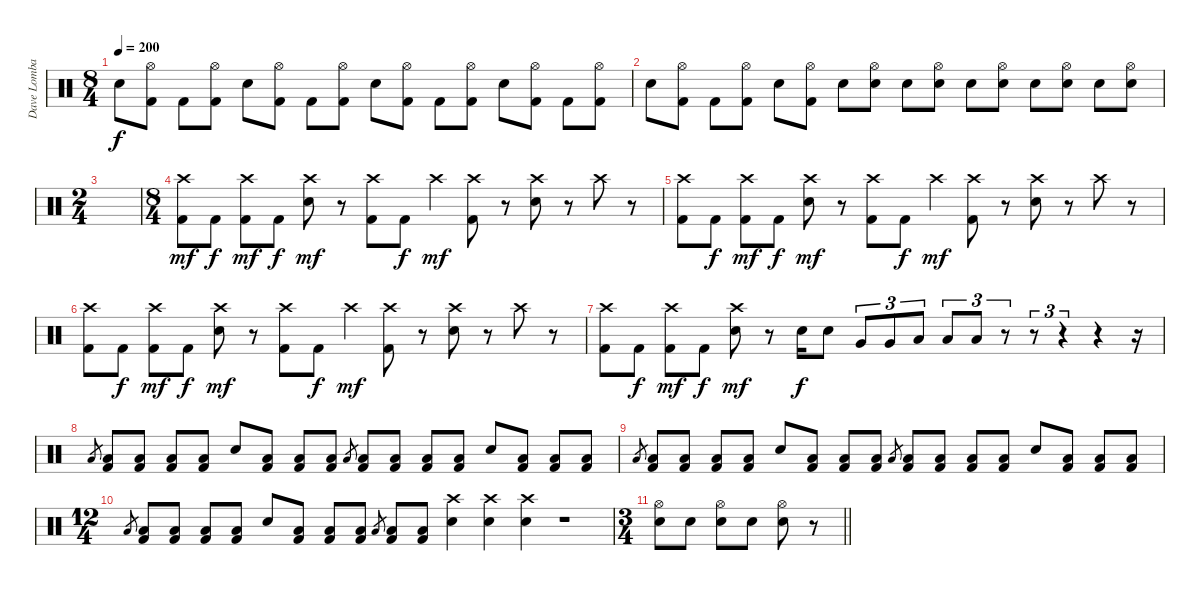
\track ("Dave Lombardo" "Dave Lomba") {instrument percussion}
\staff {score}
\articulation defaults
\ts (8 4)
\tempo 200
\clef neutral
\ks c "Electric Snare (hit)".8{dy f}
("Hi-Hat (open)" "Kick (hit) 2").8 "Kick (hit) 2".8 ("Hi-Hat (open)" "Kick (hit) 2").8 "Electric Snare (hit)".8 ("Hi-Hat (open)" "Kick (hit) 2").8 "Kick (hit) 2".8 ("Hi-Hat (open)" "Kick (hit) 2").8 "Electric Snare (hit)".8 ("Hi-Hat (open)" "Kick (hit) 2").8 "Kick (hit) 2".8 ("Hi-Hat (open)" "Kick (hit) 2").8 "Electric Snare (hit)".8 ("Hi-Hat (open)" "Kick (hit) 2").8 "Kick (hit) 2".8 ("Hi-Hat (open)" "Kick (hit) 2").8 |
"Electric Snare (hit)".8 ("Hi-Hat (open)" "Kick (hit) 2").8 "Kick (hit) 2".8 ("Hi-Hat (open)" "Kick (hit) 2").8 "Electric Snare (hit)".8 ("Hi-Hat (open)" "Kick (hit) 2").8 "Electric Snare (hit)".8 ("Hi-Hat (open)" "Electric Snare (hit)").8 "Electric Snare (hit)".8 ("Hi-Hat (open)" "Electric Snare (hit)").8 "Electric Snare (hit)".8 ("Hi-Hat (open)" "Electric Snare (hit)").8 "Electric Snare (hit)".8 ("Hi-Hat (open)" "Electric Snare (hit)").8 "Electric Snare (hit)".8 ("Hi-Hat (open)" "Electric Snare (hit)").8 |
\ts (2 4)
|
\ts (8 4)
("Crash high (hit)" "Kick (hit) 2").8{dy mf} "Kick (hit) 2".8{dy f} ("Crash high (hit)" "Kick (hit) 2").8{dy mf} "Kick (hit) 2".8{dy f} ("Crash high (hit)" "Snare (hit) 2").8{dy mf} r.8 ("Crash high (hit)" "Kick (hit) 2").8 "Kick (hit) 2".8{dy f} "Crash high (hit)".4{dy mf} ("Crash high (hit)" "Kick (hit) 2").8 r.8 ("Crash high (hit)" "Snare (hit) 2").8 r.8 "Crash high (hit)".8 r.8 |
("Crash high (hit)" "Kick (hit) 2").8 "Kick (hit) 2".8{dy f} ("Crash high (hit)" "Kick (hit) 2").8{dy mf} "Kick (hit) 2".8{dy f} ("Crash high (hit)" "Snare (hit) 2").8{dy mf} r.8 ("Crash high (hit)" "Kick (hit) 2").8 "Kick (hit) 2".8{dy f} "Crash high (hit)".4{dy mf} ("Crash high (hit)" "Kick (hit) 2").8 r.8 ("Crash high (hit)" "Snare (hit) 2").8 r.8 "Crash high (hit)".8 r.8 |
("Crash high (hit)" "Kick (hit) 2").8 "Kick (hit) 2".8{dy f} ("Crash high (hit)" "Kick (hit) 2").8{dy mf} "Kick (hit) 2".8{dy f} ("Crash high (hit)" "Snare (hit) 2").8{dy mf} r.8 ("Crash high (hit)" "Kick (hit) 2").8 "Kick (hit) 2".8{dy f} "Crash high (hit)".4{dy mf} ("Crash high (hit)" "Kick (hit) 2").8 r.8 ("Crash high (hit)" "Snare (hit) 2").8 r.8 "Crash high (hit)".8 r.8 |
("Crash high (hit)" "Kick (hit) 2").8 "Kick (hit) 2".8{dy f} ("Crash high (hit)" "Kick (hit) 2").8{dy mf} "Kick (hit) 2".8{dy f} ("Crash high (hit)" "Snare (hit) 2").8{dy mf} r.8 "Snare (hit) 2".16{dy f} "Snare (hit) 2".8 "Very Low Tom (hit)".8{tu (3 2)} "Very Low Tom (hit)".8{tu (3 2)} "Low Floor Tom (hit)".8{tu (3 2)} "Low Floor Tom (hit)".8{tu (3 2)} "Low Floor Tom (hit)".8{tu (3 2)} r.8{tu (3 2)} r.8{tu (3 2)} r.4{tu (3 2)} r.4 r.16 |
"Low Floor Tom (hit)".8{gr} ("Low Floor Tom (hit)" "Kick (hit) 2").8 ("Low Floor Tom (hit)" "Kick (hit) 2").8 ("Low Floor Tom (hit)" "Kick (hit) 2").8 ("Low Floor Tom (hit)" "Kick (hit) 2").8 "Electric Snare (hit)".8 ("Low Floor Tom (hit)" "Kick (hit) 2").8 ("Low Floor Tom (hit)" "Kick (hit) 2").8 ("Low Floor Tom (hit)" "Kick (hit) 2").8 "Low Floor Tom (hit)".8{gr} ("Low Floor Tom (hit)" "Kick (hit) 2").8 ("Low Floor Tom (hit)" "Kick (hit) 2").8 ("Low Floor Tom (hit)" "Kick (hit) 2").8 ("Low Floor Tom (hit)" "Kick (hit) 2").8 "Electric Snare (hit)".8 ("Low Floor Tom (hit)" "Kick (hit) 2").8 ("Low Floor Tom (hit)" "Kick (hit) 2").8 ("Low Floor Tom (hit)" "Kick (hit) 2").8 |
"Low Floor Tom (hit)".8{gr} ("Low Floor Tom (hit)" "Kick (hit) 2").8 ("Low Floor Tom (hit)" "Kick (hit) 2").8 ("Low Floor Tom (hit)" "Kick (hit) 2").8 ("Low Floor Tom (hit)" "Kick (hit) 2").8 "Electric Snare (hit)".8 ("Low Floor Tom (hit)" "Kick (hit) 2").8 ("Low Floor Tom (hit)" "Kick (hit) 2").8 ("Low Floor Tom (hit)" "Kick (hit) 2").8 "Low Floor Tom (hit)".8{gr} ("Low Floor Tom (hit)" "Kick (hit) 2").8 ("Low Floor Tom (hit)" "Kick (hit) 2").8 ("Low Floor Tom (hit)" "Kick (hit) 2").8 ("Low Floor Tom (hit)" "Kick (hit) 2").8 "Electric Snare (hit)".8 ("Low Floor Tom (hit)" "Kick (hit) 2").8 ("Low Floor Tom (hit)" "Kick (hit) 2").8 ("Low Floor Tom (hit)" "Kick (hit) 2").8 |
\ts (12 4)
"Low Floor Tom (hit)".8{gr} ("Low Floor Tom (hit)" "Kick (hit) 2").8 ("Low Floor Tom (hit)" "Kick (hit) 2").8 ("Low Floor Tom (hit)" "Kick (hit) 2").8 ("Low Floor Tom (hit)" "Kick (hit) 2").8 "Electric Snare (hit)".8 ("Low Floor Tom (hit)" "Kick (hit) 2").8 ("Low Floor Tom (hit)" "Kick (hit) 2").8 ("Low Floor Tom (hit)" "Kick (hit) 2").8 "Low Floor Tom (hit)".8{gr} ("Low Floor Tom (hit)" "Kick (hit) 2").8 ("Low Floor Tom (hit)" "Kick (hit) 2").8 ("Crash high (hit)" "Electric Snare (hit)").4 ("Crash high (hit)" "Electric Snare (hit)").4 ("Crash high (hit)" "Electric Snare (hit)").4 r.1 |
\ts (3 4)
\barLineRight lightlight
("Hi-Hat (open)" "Electric Snare (hit)").8 "Electric Snare (hit)".8 ("Hi-Hat (open)" "Electric Snare (hit)").8 "Electric Snare (hit)".8 ("Hi-Hat (open)" "Electric Snare (hit)").8 r.8
